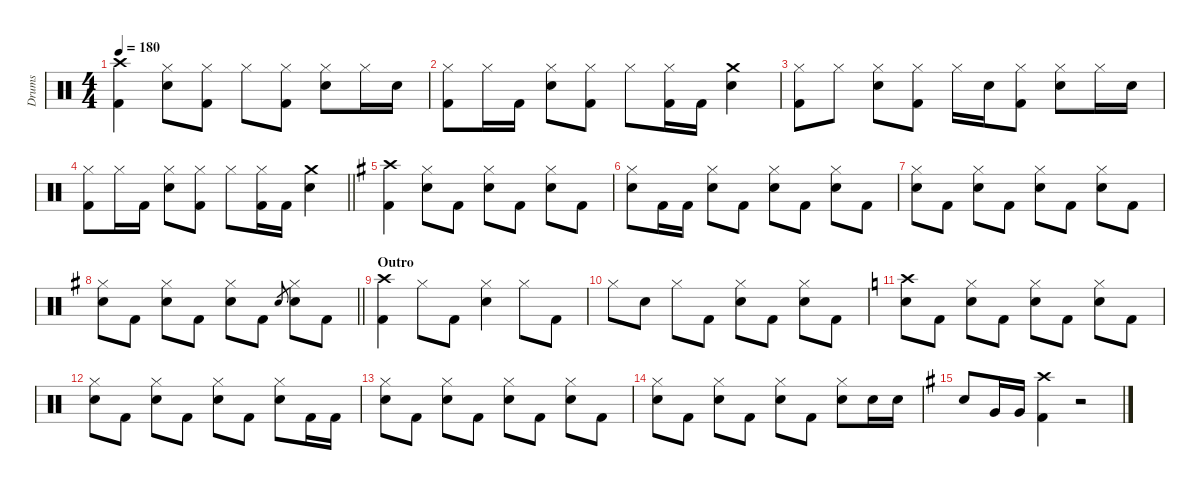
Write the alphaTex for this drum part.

\defaultSystemsLayout 4
\hideDynamics
\bracketExtendMode nobrackets
\firstSystemTrackNameMode fullname
\otherSystemsTrackNameOrientation horizontal
\track ("Drums" "drm.") {instrument percussion}
\staff {score}
\articulation defaults
\ts (4 4)
\tempo 180
\clef neutral
\ks c
("Crash high (hit)" "Kick (hit) 2").4{dy f beam Down} ("Hi-Hat (closed)" "Snare (hit) 2").8{beam Down} ("Hi-Hat (closed)" "Kick (hit) 2").8{beam Down} "Hi-Hat (closed)".8{beam Down} ("Hi-Hat (closed)" "Kick (hit) 2").8{beam Down} ("Hi-Hat (closed)" "Snare (hit) 2").8{beam Down} "Hi-Hat (closed)".16{beam Down} "Snare (hit) 2".16{beam Down} |
("Hi-Hat (closed)" "Kick (hit) 2").8{dy ff beam Down} "Hi-Hat (closed)".16{beam Down} "Kick (hit) 2".16{dy f beam Down} ("Hi-Hat (closed)" "Snare (hit) 2").8{beam Down} ("Hi-Hat (closed)" "Kick (hit) 2").8{beam Down} "Hi-Hat (closed)".8{beam Down} ("Hi-Hat (closed)" "Kick (hit) 2").16{beam Down} "Kick (hit) 2".16{beam Down} ("Crash medium (hit)" "Snare (hit) 2").4{beam Down} |
("Hi-Hat (closed)" "Kick (hit) 2").8{beam Down} "Hi-Hat (closed)".8{beam Down} ("Hi-Hat (closed)" "Snare (hit) 2").8{beam Down} ("Hi-Hat (closed)" "Kick (hit) 2").8{beam Down} "Hi-Hat (closed)".16{beam Down} "Snare (hit) 2".16{dy p beam Down} ("Hi-Hat (closed)" "Kick (hit) 2").8{dy f beam Down} ("Hi-Hat (closed)" "Snare (hit) 2").8{beam Down} "Hi-Hat (closed)".16{beam Down} "Snare (hit) 2".16{beam Down} |
\barLineRight lightlight
("Hi-Hat (closed)" "Kick (hit) 2").8{dy ff beam Down} "Hi-Hat (closed)".16{beam Down} "Kick (hit) 2".16{dy f beam Down} ("Hi-Hat (closed)" "Snare (hit) 2").8{beam Down} ("Hi-Hat (closed)" "Kick (hit) 2").8{beam Down} "Hi-Hat (closed)".8{beam Down} ("Hi-Hat (closed)" "Kick (hit) 2").16{beam Down} "Kick (hit) 2".16{beam Down} ("Crash medium (hit)" "Snare (hit) 2").4{beam Down} |
\ks g
("Crash high (hit)"{acc forcenatural} "Kick (hit) 2"{acc forcenatural}).4{beam Down} ("Hi-Hat (closed)"{acc forcenatural} "Snare (hit) 2"{acc forcenatural}).8{beam Down} "Kick (hit) 2"{acc forcenatural}.8{beam Down} ("Hi-Hat (closed)"{acc forcenatural} "Snare (hit) 2"{acc forcenatural}).8{beam Down} "Kick (hit) 2"{acc forcenatural}.8{beam Down} ("Hi-Hat (closed)"{acc forcenatural} "Snare (hit) 2"{acc forcenatural}).8{beam Down} "Kick (hit) 2"{acc forcenatural}.8{beam Down} |
("Hi-Hat (closed)"{acc forcenatural} "Snare (hit) 2"{acc forcenatural}).8{beam Down} "Kick (hit) 2"{acc forcenatural}.16{beam Down} "Kick (hit) 2"{acc forcenatural}.16{beam Down} ("Hi-Hat (closed)"{acc forcenatural} "Snare (hit) 2"{acc forcenatural}).8{beam Down} "Kick (hit) 2"{acc forcenatural}.8{beam Down} ("Hi-Hat (closed)"{acc forcenatural} "Snare (hit) 2"{acc forcenatural}).8{beam Down} "Kick (hit) 2"{acc forcenatural}.8{beam Down} ("Hi-Hat (closed)"{acc forcenatural} "Snare (hit) 2"{acc forcenatural}).8{beam Down} "Kick (hit) 2"{acc forcenatural}.8{beam Down} |
("Hi-Hat (closed)"{acc forcenatural} "Snare (hit) 2"{acc forcenatural}).8{beam Down} "Kick (hit) 2"{acc forcenatural}.8{beam Down} ("Hi-Hat (closed)"{acc forcenatural} "Snare (hit) 2"{acc forcenatural}).8{beam Down} "Kick (hit) 2"{acc forcenatural}.8{beam Down} ("Hi-Hat (closed)"{acc forcenatural} "Snare (hit) 2"{acc forcenatural}).8{beam Down} "Kick (hit) 2"{acc forcenatural}.8{beam Down} ("Hi-Hat (closed)"{acc forcenatural} "Snare (hit) 2"{acc forcenatural}).8{beam Down} "Kick (hit) 2"{acc forcenatural}.8{beam Down} |
\barLineRight lightlight
("Hi-Hat (closed)"{acc forcenatural} "Snare (hit) 2"{acc forcenatural}).8{beam Down} "Kick (hit) 2"{acc forcenatural}.8{beam Down} ("Hi-Hat (closed)"{acc forcenatural} "Snare (hit) 2"{acc forcenatural}).8{beam Down} "Kick (hit) 2"{acc forcenatural}.8{beam Down} ("Hi-Hat (closed)"{acc forcenatural} "Snare (hit) 2"{acc forcenatural}).8{beam Down} "Kick (hit) 2"{acc forcenatural}.8{beam Down} "Snare (hit) 2"{acc forcenatural}.8{gr dy mf beam Up} ("Hi-Hat (closed)"{acc forcenatural} "Snare (hit) 2"{acc forcenatural}).8{dy f beam Down} "Kick (hit) 2"{acc forcenatural}.8{beam Down} |
\section ("" "Outro")
("Crash high (hit)"{acc forcenatural} "Kick (hit) 2"{acc forcenatural}).4{beam Down} "Hi-Hat (closed)"{acc forcenatural}.8{beam Down} "Kick (hit) 2"{acc forcenatural}.8{beam Down} ("Hi-Hat (closed)"{acc forcenatural} "Snare (hit) 2"{acc forcenatural}).4{beam Down} "Hi-Hat (closed)"{acc forcenatural}.8{beam Down} "Kick (hit) 2"{acc forcenatural}.8{beam Down} |
"Hi-Hat (closed)"{acc forcenatural}.8{beam Down} "Snare (hit) 2"{acc forcenatural}.8{beam Down} "Hi-Hat (closed)"{acc forcenatural}.8{beam Down} "Kick (hit) 2"{acc forcenatural}.8{beam Down} ("Hi-Hat (closed)"{acc forcenatural} "Snare (hit) 2"{acc forcenatural}).8{beam Down} "Kick (hit) 2"{acc forcenatural}.8{beam Down} ("Hi-Hat (closed)"{acc forcenatural} "Snare (hit) 2"{acc forcenatural}).8{beam Down} "Kick (hit) 2"{acc forcenatural}.8{beam Down} |
\ks c
("Crash high (hit)" "Snare (hit) 2").8{beam Down} "Kick (hit) 2".8{beam Down} ("Hi-Hat (closed)" "Snare (hit) 2").8{beam Down} "Kick (hit) 2".8{beam Down} ("Hi-Hat (closed)" "Snare (hit) 2").8{beam Down} "Kick (hit) 2".8{beam Down} ("Hi-Hat (closed)" "Snare (hit) 2").8{beam Down} "Kick (hit) 2".8{beam Down} |
("Hi-Hat (closed)" "Snare (hit) 2").8{beam Down} "Kick (hit) 2".8{beam Down} ("Hi-Hat (closed)" "Snare (hit) 2").8{beam Down} "Kick (hit) 2".8{beam Down} ("Hi-Hat (closed)" "Snare (hit) 2").8{beam Down} "Kick (hit) 2".8{beam Down} ("Hi-Hat (closed)" "Snare (hit) 2").8{beam Down} "Kick (hit) 2".16{beam Down} "Kick (hit) 2".16{beam Down} |
("Hi-Hat (closed)" "Snare (hit) 2").8{beam Down} "Kick (hit) 2".8{beam Down} ("Hi-Hat (closed)" "Snare (hit) 2").8{beam Down} "Kick (hit) 2".8{beam Down} ("Hi-Hat (closed)" "Snare (hit) 2").8{beam Down} "Kick (hit) 2".8{beam Down} ("Hi-Hat (closed)" "Snare (hit) 2").8{beam Down} "Kick (hit) 2".8{beam Down} |
("Hi-Hat (closed)" "Snare (hit) 2").8{beam Down} "Kick (hit) 2".8{beam Down} ("Hi-Hat (closed)" "Snare (hit) 2").8{beam Down} "Kick (hit) 2".8{beam Down} ("Hi-Hat (closed)" "Snare (hit) 2").8{beam Down} "Kick (hit) 2".8{beam Down} ("Hi-Hat (closed)" "Snare (hit) 2").8{beam Down} "Snare (hit) 2".16{beam Down} "Snare (hit) 2".16{beam Down} |
\ks g "Snare (hit) 2"{acc forcenatural}.8{beam Up} "Very Low Tom (hit)"{acc forcenatural}.16{beam Up} "Very Low Tom (hit)"{acc forcenatural}.16{beam Up}
("Crash high (hit)"{acc forcenatural} "Kick (hit) 2"{acc forcenatural}).4{beam Down} r.2{beam Down}
